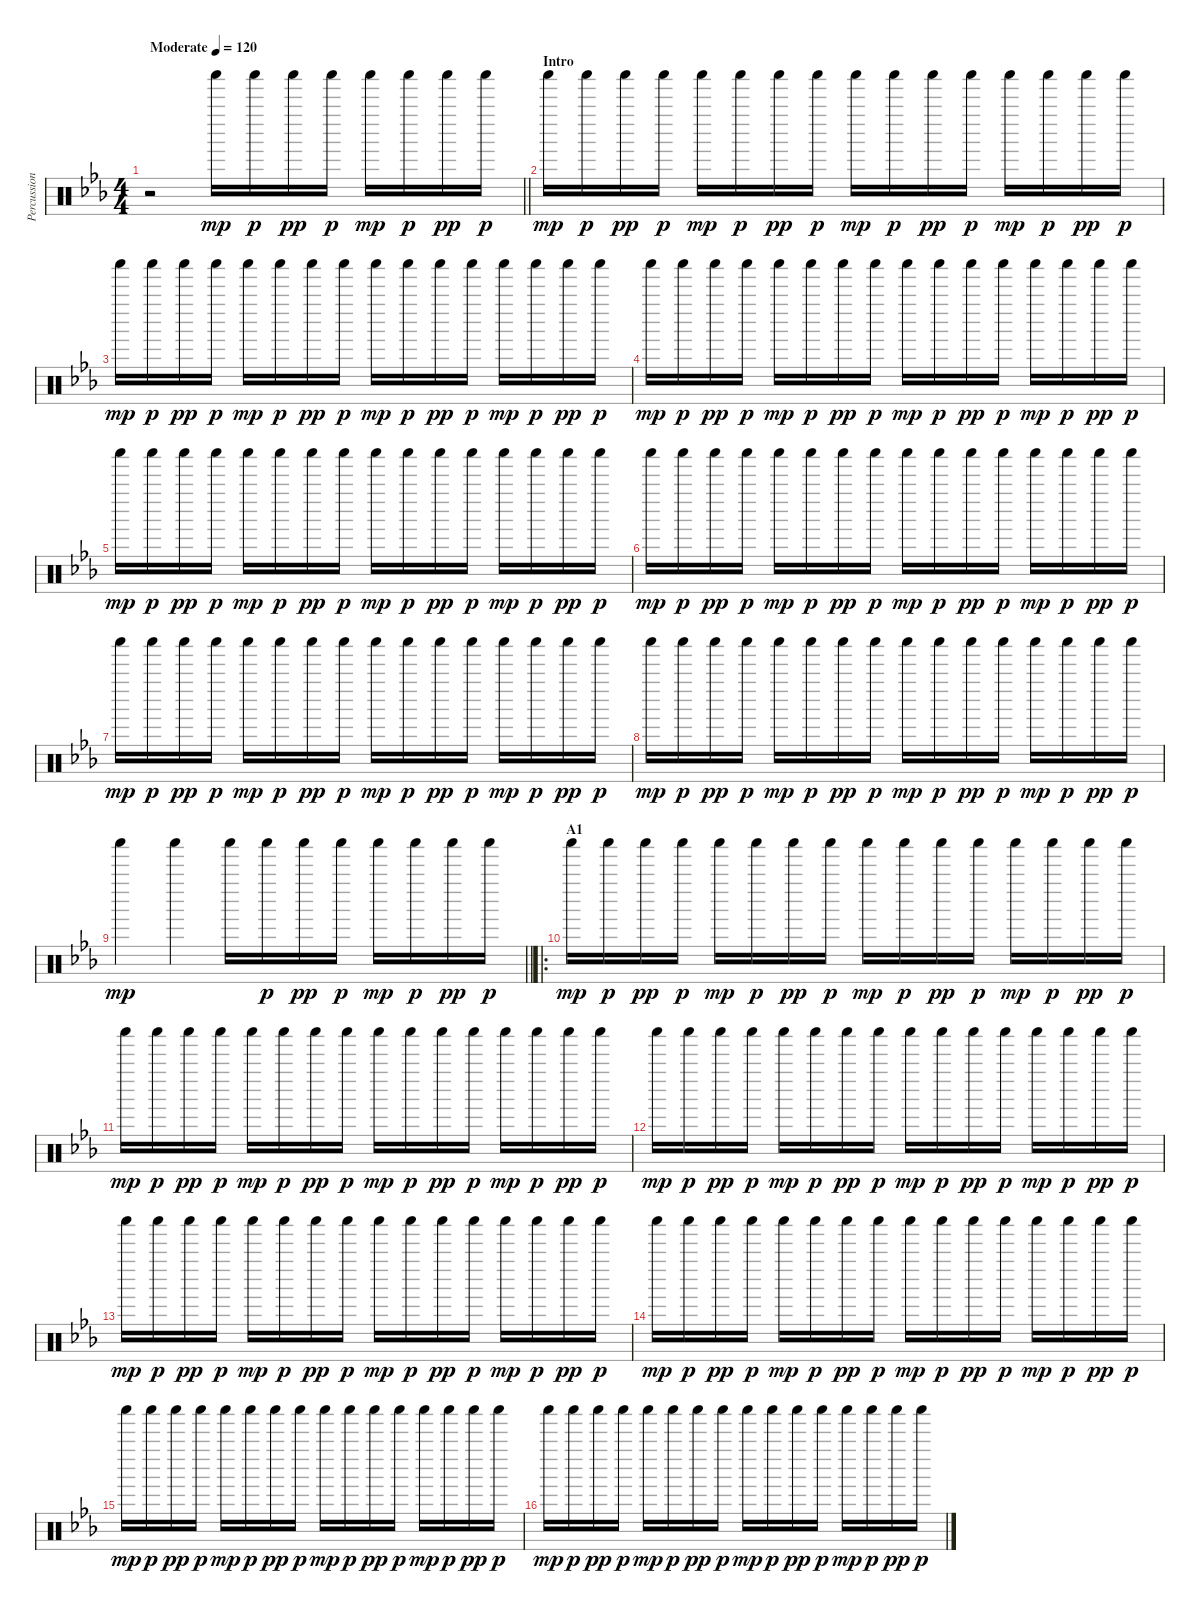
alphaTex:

\track ("Percussion" "Percussion") {instrument percussion}
\staff {score}
\articulation defaults
\ts (4 4)
\tempo (120 "Moderate")
\clef neutral
\barLineRight lightlight
\ks eb
r.2{dy mp} "Shaker (hit)".16 "Shaker (hit)".16{dy p} "Shaker (hit)".16{dy pp} "Shaker (hit)".16{dy p} "Shaker (hit)".16{dy mp} "Shaker (hit)".16{dy p} "Shaker (hit)".16{dy pp} "Shaker (hit)".16{dy p} |
\section ("" "Intro")
"Shaker (hit)".16{dy mp} "Shaker (hit)".16{dy p} "Shaker (hit)".16{dy pp} "Shaker (hit)".16{dy p} "Shaker (hit)".16{dy mp} "Shaker (hit)".16{dy p} "Shaker (hit)".16{dy pp} "Shaker (hit)".16{dy p} "Shaker (hit)".16{dy mp} "Shaker (hit)".16{dy p} "Shaker (hit)".16{dy pp} "Shaker (hit)".16{dy p} "Shaker (hit)".16{dy mp} "Shaker (hit)".16{dy p} "Shaker (hit)".16{dy pp} "Shaker (hit)".16{dy p} |
"Shaker (hit)".16{dy mp} "Shaker (hit)".16{dy p} "Shaker (hit)".16{dy pp} "Shaker (hit)".16{dy p} "Shaker (hit)".16{dy mp} "Shaker (hit)".16{dy p} "Shaker (hit)".16{dy pp} "Shaker (hit)".16{dy p} "Shaker (hit)".16{dy mp} "Shaker (hit)".16{dy p} "Shaker (hit)".16{dy pp} "Shaker (hit)".16{dy p} "Shaker (hit)".16{dy mp} "Shaker (hit)".16{dy p} "Shaker (hit)".16{dy pp} "Shaker (hit)".16{dy p} |
"Shaker (hit)".16{dy mp} "Shaker (hit)".16{dy p} "Shaker (hit)".16{dy pp} "Shaker (hit)".16{dy p} "Shaker (hit)".16{dy mp} "Shaker (hit)".16{dy p} "Shaker (hit)".16{dy pp} "Shaker (hit)".16{dy p} "Shaker (hit)".16{dy mp} "Shaker (hit)".16{dy p} "Shaker (hit)".16{dy pp} "Shaker (hit)".16{dy p} "Shaker (hit)".16{dy mp} "Shaker (hit)".16{dy p} "Shaker (hit)".16{dy pp} "Shaker (hit)".16{dy p} |
"Shaker (hit)".16{dy mp} "Shaker (hit)".16{dy p} "Shaker (hit)".16{dy pp} "Shaker (hit)".16{dy p} "Shaker (hit)".16{dy mp} "Shaker (hit)".16{dy p} "Shaker (hit)".16{dy pp} "Shaker (hit)".16{dy p} "Shaker (hit)".16{dy mp} "Shaker (hit)".16{dy p} "Shaker (hit)".16{dy pp} "Shaker (hit)".16{dy p} "Shaker (hit)".16{dy mp} "Shaker (hit)".16{dy p} "Shaker (hit)".16{dy pp} "Shaker (hit)".16{dy p} |
"Shaker (hit)".16{dy mp} "Shaker (hit)".16{dy p} "Shaker (hit)".16{dy pp} "Shaker (hit)".16{dy p} "Shaker (hit)".16{dy mp} "Shaker (hit)".16{dy p} "Shaker (hit)".16{dy pp} "Shaker (hit)".16{dy p} "Shaker (hit)".16{dy mp} "Shaker (hit)".16{dy p} "Shaker (hit)".16{dy pp} "Shaker (hit)".16{dy p} "Shaker (hit)".16{dy mp} "Shaker (hit)".16{dy p} "Shaker (hit)".16{dy pp} "Shaker (hit)".16{dy p} |
"Shaker (hit)".16{dy mp} "Shaker (hit)".16{dy p} "Shaker (hit)".16{dy pp} "Shaker (hit)".16{dy p} "Shaker (hit)".16{dy mp} "Shaker (hit)".16{dy p} "Shaker (hit)".16{dy pp} "Shaker (hit)".16{dy p} "Shaker (hit)".16{dy mp} "Shaker (hit)".16{dy p} "Shaker (hit)".16{dy pp} "Shaker (hit)".16{dy p} "Shaker (hit)".16{dy mp} "Shaker (hit)".16{dy p} "Shaker (hit)".16{dy pp} "Shaker (hit)".16{dy p} |
"Shaker (hit)".16{dy mp} "Shaker (hit)".16{dy p} "Shaker (hit)".16{dy pp} "Shaker (hit)".16{dy p} "Shaker (hit)".16{dy mp} "Shaker (hit)".16{dy p} "Shaker (hit)".16{dy pp} "Shaker (hit)".16{dy p} "Shaker (hit)".16{dy mp} "Shaker (hit)".16{dy p} "Shaker (hit)".16{dy pp} "Shaker (hit)".16{dy p} "Shaker (hit)".16{dy mp} "Shaker (hit)".16{dy p} "Shaker (hit)".16{dy pp} "Shaker (hit)".16{dy p} |
\barLineRight lightlight "Shaker (hit)".4{dy mp} "Shaker (hit)".4 "Shaker (hit)".16 "Shaker (hit)".16{dy p} "Shaker (hit)".16{dy pp} "Shaker (hit)".16{dy p} "Shaker (hit)".16{dy mp} "Shaker (hit)".16{dy p} "Shaker (hit)".16{dy pp} "Shaker (hit)".16{dy p}
|
\ro
\section ("" "A1")
"Shaker (hit)".16{dy mp} "Shaker (hit)".16{dy p} "Shaker (hit)".16{dy pp} "Shaker (hit)".16{dy p} "Shaker (hit)".16{dy mp} "Shaker (hit)".16{dy p} "Shaker (hit)".16{dy pp} "Shaker (hit)".16{dy p} "Shaker (hit)".16{dy mp} "Shaker (hit)".16{dy p} "Shaker (hit)".16{dy pp} "Shaker (hit)".16{dy p} "Shaker (hit)".16{dy mp} "Shaker (hit)".16{dy p} "Shaker (hit)".16{dy pp} "Shaker (hit)".16{dy p} |
"Shaker (hit)".16{dy mp} "Shaker (hit)".16{dy p} "Shaker (hit)".16{dy pp} "Shaker (hit)".16{dy p} "Shaker (hit)".16{dy mp} "Shaker (hit)".16{dy p} "Shaker (hit)".16{dy pp} "Shaker (hit)".16{dy p} "Shaker (hit)".16{dy mp} "Shaker (hit)".16{dy p} "Shaker (hit)".16{dy pp} "Shaker (hit)".16{dy p} "Shaker (hit)".16{dy mp} "Shaker (hit)".16{dy p} "Shaker (hit)".16{dy pp} "Shaker (hit)".16{dy p} |
"Shaker (hit)".16{dy mp} "Shaker (hit)".16{dy p} "Shaker (hit)".16{dy pp} "Shaker (hit)".16{dy p} "Shaker (hit)".16{dy mp} "Shaker (hit)".16{dy p} "Shaker (hit)".16{dy pp} "Shaker (hit)".16{dy p} "Shaker (hit)".16{dy mp} "Shaker (hit)".16{dy p} "Shaker (hit)".16{dy pp} "Shaker (hit)".16{dy p} "Shaker (hit)".16{dy mp} "Shaker (hit)".16{dy p} "Shaker (hit)".16{dy pp} "Shaker (hit)".16{dy p} |
"Shaker (hit)".16{dy mp} "Shaker (hit)".16{dy p} "Shaker (hit)".16{dy pp} "Shaker (hit)".16{dy p} "Shaker (hit)".16{dy mp} "Shaker (hit)".16{dy p} "Shaker (hit)".16{dy pp} "Shaker (hit)".16{dy p} "Shaker (hit)".16{dy mp} "Shaker (hit)".16{dy p} "Shaker (hit)".16{dy pp} "Shaker (hit)".16{dy p} "Shaker (hit)".16{dy mp} "Shaker (hit)".16{dy p} "Shaker (hit)".16{dy pp} "Shaker (hit)".16{dy p} |
"Shaker (hit)".16{dy mp} "Shaker (hit)".16{dy p} "Shaker (hit)".16{dy pp} "Shaker (hit)".16{dy p} "Shaker (hit)".16{dy mp} "Shaker (hit)".16{dy p} "Shaker (hit)".16{dy pp} "Shaker (hit)".16{dy p} "Shaker (hit)".16{dy mp} "Shaker (hit)".16{dy p} "Shaker (hit)".16{dy pp} "Shaker (hit)".16{dy p} "Shaker (hit)".16{dy mp} "Shaker (hit)".16{dy p} "Shaker (hit)".16{dy pp} "Shaker (hit)".16{dy p} |
"Shaker (hit)".16{dy mp} "Shaker (hit)".16{dy p} "Shaker (hit)".16{dy pp} "Shaker (hit)".16{dy p} "Shaker (hit)".16{dy mp} "Shaker (hit)".16{dy p} "Shaker (hit)".16{dy pp} "Shaker (hit)".16{dy p} "Shaker (hit)".16{dy mp} "Shaker (hit)".16{dy p} "Shaker (hit)".16{dy pp} "Shaker (hit)".16{dy p} "Shaker (hit)".16{dy mp} "Shaker (hit)".16{dy p} "Shaker (hit)".16{dy pp} "Shaker (hit)".16{dy p} |
"Shaker (hit)".16{dy mp} "Shaker (hit)".16{dy p} "Shaker (hit)".16{dy pp} "Shaker (hit)".16{dy p} "Shaker (hit)".16{dy mp} "Shaker (hit)".16{dy p} "Shaker (hit)".16{dy pp} "Shaker (hit)".16{dy p} "Shaker (hit)".16{dy mp} "Shaker (hit)".16{dy p} "Shaker (hit)".16{dy pp} "Shaker (hit)".16{dy p} "Shaker (hit)".16{dy mp} "Shaker (hit)".16{dy p} "Shaker (hit)".16{dy pp} "Shaker (hit)".16{dy p}
